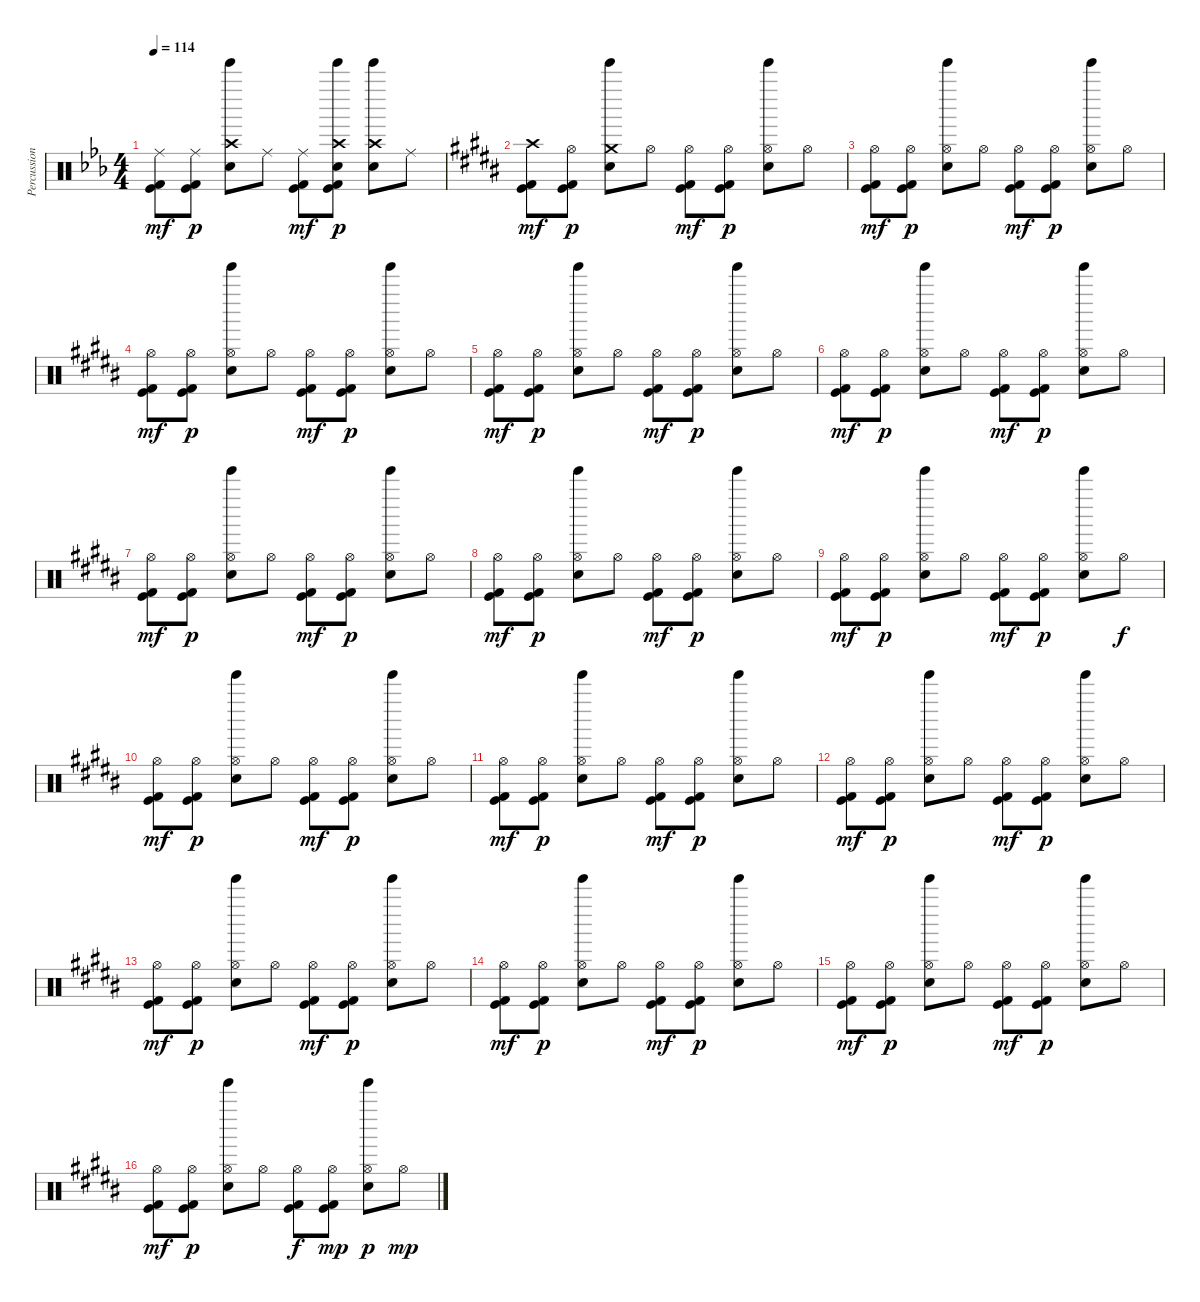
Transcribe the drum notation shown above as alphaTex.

\track ("Percussion" "Percussion") {instrument percussion}
\staff {score}
\articulation defaults
\ts (4 4)
\tempo 114
\clef neutral
\ks cminor
("Ride (middle)" "Kick (hit)" "Kick (hit) 2").8{dy mf} ("Ride (middle)" "Kick (hit)" "Kick (hit) 2").8{dy p} ("Crash high (hit)" "Electric Snare (hit)" "Tinkle Bell (hit)").8 "Ride (middle)".8 ("Ride (middle)" "Kick (hit)" "Kick (hit) 2").8{dy mf} ("Crash high (hit)" "Electric Snare (hit)" "Tinkle Bell (hit)" "Kick (hit)" "Kick (hit) 2").8{dy p} ("Crash high (hit)" "Electric Snare (hit)" "Tinkle Bell (hit)").8 "Ride (middle)".8 |
\ks g#minor
("Crash high (hit)" "Kick (hit)" "Kick (hit) 2").8{dy mf} ("Hi-Hat (open)" "Kick (hit)" "Kick (hit) 2").8{dy p} ("Crash medium (hit)" "Electric Snare (hit)" "Tinkle Bell (hit)").8 "Hi-Hat (open)".8 ("Hi-Hat (open)" "Kick (hit)" "Kick (hit) 2").8{dy mf} ("Hi-Hat (open)" "Kick (hit)" "Kick (hit) 2").8{dy p} ("Hi-Hat (open)" "Electric Snare (hit)" "Tinkle Bell (hit)").8 "Hi-Hat (open)".8 |
("Hi-Hat (open)" "Kick (hit)" "Kick (hit) 2").8{dy mf} ("Hi-Hat (open)" "Kick (hit)" "Kick (hit) 2").8{dy p} ("Hi-Hat (open)" "Electric Snare (hit)" "Tinkle Bell (hit)").8 "Hi-Hat (open)".8 ("Hi-Hat (open)" "Kick (hit)" "Kick (hit) 2").8{dy mf} ("Hi-Hat (open)" "Kick (hit)" "Kick (hit) 2").8{dy p} ("Hi-Hat (open)" "Electric Snare (hit)" "Tinkle Bell (hit)").8 "Hi-Hat (open)".8 |
("Hi-Hat (open)" "Kick (hit)" "Kick (hit) 2").8{dy mf} ("Hi-Hat (open)" "Kick (hit)" "Kick (hit) 2").8{dy p} ("Hi-Hat (open)" "Electric Snare (hit)" "Tinkle Bell (hit)").8 "Hi-Hat (open)".8 ("Hi-Hat (open)" "Kick (hit)" "Kick (hit) 2").8{dy mf} ("Hi-Hat (open)" "Kick (hit)" "Kick (hit) 2").8{dy p} ("Hi-Hat (open)" "Electric Snare (hit)" "Tinkle Bell (hit)").8 "Hi-Hat (open)".8 |
("Hi-Hat (open)" "Kick (hit)" "Kick (hit) 2").8{dy mf} ("Hi-Hat (open)" "Kick (hit)" "Kick (hit) 2").8{dy p} ("Hi-Hat (open)" "Electric Snare (hit)" "Tinkle Bell (hit)").8 "Hi-Hat (open)".8 ("Hi-Hat (open)" "Kick (hit)" "Kick (hit) 2").8{dy mf} ("Hi-Hat (open)" "Kick (hit)" "Kick (hit) 2").8{dy p} ("Hi-Hat (open)" "Electric Snare (hit)" "Tinkle Bell (hit)").8 "Hi-Hat (open)".8 |
("Hi-Hat (open)" "Kick (hit)" "Kick (hit) 2").8{dy mf} ("Hi-Hat (open)" "Kick (hit)" "Kick (hit) 2").8{dy p} ("Hi-Hat (open)" "Electric Snare (hit)" "Tinkle Bell (hit)").8 "Hi-Hat (open)".8 ("Hi-Hat (open)" "Kick (hit)" "Kick (hit) 2").8{dy mf} ("Hi-Hat (open)" "Kick (hit)" "Kick (hit) 2").8{dy p} ("Hi-Hat (open)" "Electric Snare (hit)" "Tinkle Bell (hit)").8 "Hi-Hat (open)".8 |
("Hi-Hat (open)" "Kick (hit)" "Kick (hit) 2").8{dy mf} ("Hi-Hat (open)" "Kick (hit)" "Kick (hit) 2").8{dy p} ("Hi-Hat (open)" "Electric Snare (hit)" "Tinkle Bell (hit)").8 "Hi-Hat (open)".8 ("Hi-Hat (open)" "Kick (hit)" "Kick (hit) 2").8{dy mf} ("Hi-Hat (open)" "Kick (hit)" "Kick (hit) 2").8{dy p} ("Hi-Hat (open)" "Electric Snare (hit)" "Tinkle Bell (hit)").8 "Hi-Hat (open)".8 |
("Hi-Hat (open)" "Kick (hit)" "Kick (hit) 2").8{dy mf} ("Hi-Hat (open)" "Kick (hit)" "Kick (hit) 2").8{dy p} ("Hi-Hat (open)" "Electric Snare (hit)" "Tinkle Bell (hit)").8 "Hi-Hat (open)".8 ("Hi-Hat (open)" "Kick (hit)" "Kick (hit) 2").8{dy mf} ("Hi-Hat (open)" "Kick (hit)" "Kick (hit) 2").8{dy p} ("Hi-Hat (open)" "Electric Snare (hit)" "Tinkle Bell (hit)").8 "Hi-Hat (open)".8 |
("Hi-Hat (open)" "Kick (hit)" "Kick (hit) 2").8{dy mf} ("Hi-Hat (open)" "Kick (hit)" "Kick (hit) 2").8{dy p} ("Hi-Hat (open)" "Electric Snare (hit)" "Tinkle Bell (hit)").8 "Hi-Hat (open)".8 ("Hi-Hat (open)" "Kick (hit)" "Kick (hit) 2").8{dy mf} ("Hi-Hat (open)" "Kick (hit)" "Kick (hit) 2").8{dy p} ("Hi-Hat (open)" "Electric Snare (hit)" "Tinkle Bell (hit)").8 "Hi-Hat (open)".8{dy f} |
("Hi-Hat (open)" "Kick (hit)" "Kick (hit) 2").8{dy mf} ("Hi-Hat (open)" "Kick (hit)" "Kick (hit) 2").8{dy p} ("Hi-Hat (open)" "Electric Snare (hit)" "Tinkle Bell (hit)").8 "Hi-Hat (open)".8 ("Hi-Hat (open)" "Kick (hit)" "Kick (hit) 2").8{dy mf} ("Hi-Hat (open)" "Kick (hit)" "Kick (hit) 2").8{dy p} ("Hi-Hat (open)" "Electric Snare (hit)" "Tinkle Bell (hit)").8 "Hi-Hat (open)".8 |
("Hi-Hat (open)" "Kick (hit)" "Kick (hit) 2").8{dy mf} ("Hi-Hat (open)" "Kick (hit)" "Kick (hit) 2").8{dy p} ("Hi-Hat (open)" "Electric Snare (hit)" "Tinkle Bell (hit)").8 "Hi-Hat (open)".8 ("Hi-Hat (open)" "Kick (hit)" "Kick (hit) 2").8{dy mf} ("Hi-Hat (open)" "Kick (hit)" "Kick (hit) 2").8{dy p} ("Hi-Hat (open)" "Electric Snare (hit)" "Tinkle Bell (hit)").8 "Hi-Hat (open)".8 |
("Hi-Hat (open)" "Kick (hit)" "Kick (hit) 2").8{dy mf} ("Hi-Hat (open)" "Kick (hit)" "Kick (hit) 2").8{dy p} ("Hi-Hat (open)" "Electric Snare (hit)" "Tinkle Bell (hit)").8 "Hi-Hat (open)".8 ("Hi-Hat (open)" "Kick (hit)" "Kick (hit) 2").8{dy mf} ("Hi-Hat (open)" "Kick (hit)" "Kick (hit) 2").8{dy p} ("Hi-Hat (open)" "Electric Snare (hit)" "Tinkle Bell (hit)").8 "Hi-Hat (open)".8 |
("Hi-Hat (open)" "Kick (hit)" "Kick (hit) 2").8{dy mf} ("Hi-Hat (open)" "Kick (hit)" "Kick (hit) 2").8{dy p} ("Hi-Hat (open)" "Electric Snare (hit)" "Tinkle Bell (hit)").8 "Hi-Hat (open)".8 ("Hi-Hat (open)" "Kick (hit)" "Kick (hit) 2").8{dy mf} ("Hi-Hat (open)" "Kick (hit)" "Kick (hit) 2").8{dy p} ("Hi-Hat (open)" "Electric Snare (hit)" "Tinkle Bell (hit)").8 "Hi-Hat (open)".8 |
("Hi-Hat (open)" "Kick (hit)" "Kick (hit) 2").8{dy mf} ("Hi-Hat (open)" "Kick (hit)" "Kick (hit) 2").8{dy p} ("Hi-Hat (open)" "Electric Snare (hit)" "Tinkle Bell (hit)").8 "Hi-Hat (open)".8 ("Hi-Hat (open)" "Kick (hit)" "Kick (hit) 2").8{dy mf} ("Hi-Hat (open)" "Kick (hit)" "Kick (hit) 2").8{dy p} ("Hi-Hat (open)" "Electric Snare (hit)" "Tinkle Bell (hit)").8 "Hi-Hat (open)".8 |
("Hi-Hat (open)" "Kick (hit)" "Kick (hit) 2").8{dy mf} ("Hi-Hat (open)" "Kick (hit)" "Kick (hit) 2").8{dy p} ("Hi-Hat (open)" "Electric Snare (hit)" "Tinkle Bell (hit)").8 "Hi-Hat (open)".8 ("Hi-Hat (open)" "Kick (hit)" "Kick (hit) 2").8{dy mf} ("Hi-Hat (open)" "Kick (hit)" "Kick (hit) 2").8{dy p} ("Hi-Hat (open)" "Electric Snare (hit)" "Tinkle Bell (hit)").8 "Hi-Hat (open)".8 |
("Hi-Hat (open)" "Kick (hit)" "Kick (hit) 2").8{dy mf} ("Hi-Hat (open)" "Kick (hit)" "Kick (hit) 2").8{dy p} ("Hi-Hat (open)" "Electric Snare (hit)" "Tinkle Bell (hit)").8 "Hi-Hat (open)".8 ("Hi-Hat (open)" "Kick (hit)" "Kick (hit) 2").8{dy f} ("Hi-Hat (open)" "Kick (hit)" "Kick (hit) 2").8{dy mp} ("Hi-Hat (open)" "Electric Snare (hit)" "Tinkle Bell (hit)").8{dy p} "Hi-Hat (open)".8{dy mp}
